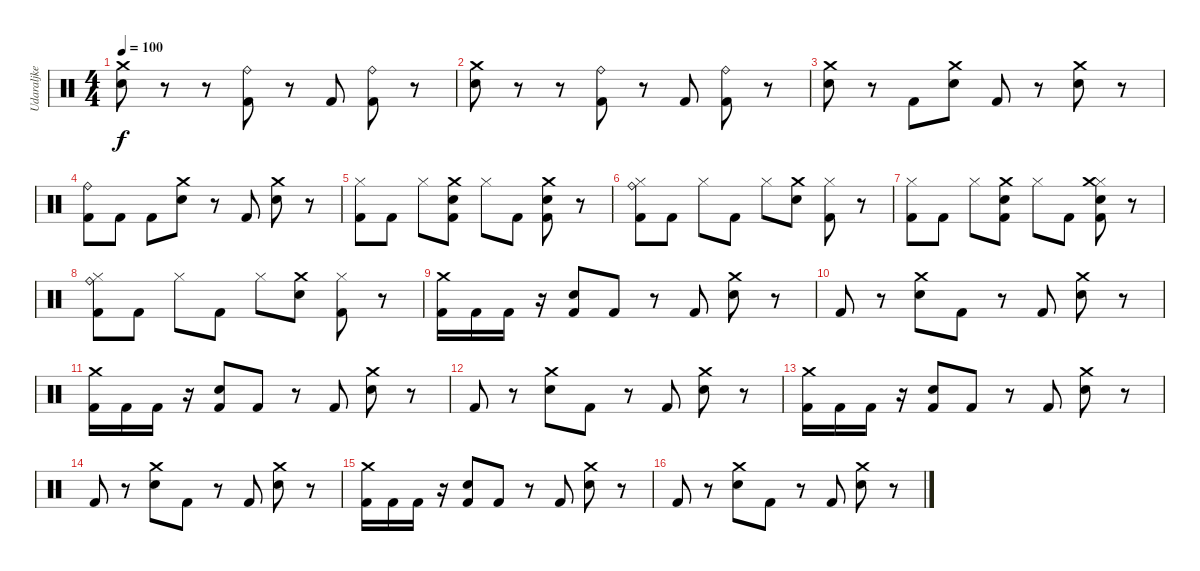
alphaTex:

\track ("Udaraljke" "Udaraljke") {instrument percussion}
\staff {score}
\articulation defaults
\ts (4 4)
\tempo 100
\clef neutral
\ks c
("Crash medium (hit)" "Snare (hit) 2").8{dy f} r.8 r.8 ("Ride (bell)" "Kick (hit) 2").8 r.8 "Kick (hit) 2".8 ("Ride (bell)" "Kick (hit) 2").8 r.8 |
("Crash medium (hit)" "Snare (hit) 2").8 r.8 r.8 ("Ride (bell)" "Kick (hit) 2").8 r.8 "Kick (hit) 2".8 ("Ride (bell)" "Kick (hit) 2").8 r.8 |
("Snare (hit) 2" "Crash medium (hit)").8 r.8 "Kick (hit) 2".8 ("Crash medium (hit)" "Snare (hit) 2").8 "Kick (hit) 2".8 r.8 ("Snare (hit) 2" "Crash medium (hit)").8 r.8 |
("Ride (bell)" "Kick (hit) 2").8 "Kick (hit) 2".8 "Kick (hit) 2".8 ("Crash medium (hit)" "Snare (hit) 2").8 r.8 "Kick (hit) 2".8 ("Crash medium (hit)" "Snare (hit) 2").8 r.8 |
("Hi-Hat (closed)" "Kick (hit) 2").8 "Kick (hit) 2".8 "Hi-Hat (closed)".8 ("Crash medium (hit)" "Snare (hit) 2" "Kick (hit) 2").8 "Hi-Hat (closed)".8 "Kick (hit) 2".8 ("Crash medium (hit)" "Snare (hit) 2" "Kick (hit) 2").8 r.8 |
("Hi-Hat (closed)" "Ride (bell)" "Kick (hit) 2").8 "Kick (hit) 2".8 "Hi-Hat (closed)".8 "Kick (hit) 2".8 "Hi-Hat (closed)".8 ("Crash medium (hit)" "Snare (hit) 2").8 ("Hi-Hat (closed)" "Kick (hit) 2").8 r.8 |
("Hi-Hat (closed)" "Kick (hit) 2").8 "Kick (hit) 2".8 "Hi-Hat (closed)".8 ("Crash medium (hit)" "Snare (hit) 2" "Kick (hit) 2").8 "Hi-Hat (closed)".8 "Kick (hit) 2".8 ("Hi-Hat (closed)" "Crash medium (hit)" "Snare (hit) 2" "Kick (hit) 2").8 r.8 |
("Hi-Hat (closed)" "Ride (bell)" "Kick (hit) 2").8 "Kick (hit) 2".8 "Hi-Hat (closed)".8 "Kick (hit) 2".8 "Hi-Hat (closed)".8 ("Crash medium (hit)" "Snare (hit) 2").8 ("Hi-Hat (closed)" "Kick (hit) 2").8 r.8 |
("Crash medium (hit)" "Kick (hit) 2").16 "Kick (hit) 2".16 "Kick (hit) 2".16 r.16 ("Snare (hit) 2" "Kick (hit) 2").8 "Kick (hit) 2".8 r.8 "Kick (hit) 2".8 ("Crash medium (hit)" "Snare (hit) 2").8 r.8 |
"Kick (hit) 2".8 r.8 ("Crash medium (hit)" "Snare (hit) 2").8 "Kick (hit) 2".8 r.8 "Kick (hit) 2".8 ("Crash medium (hit)" "Snare (hit) 2").8 r.8 |
("Crash medium (hit)" "Kick (hit) 2").16 "Kick (hit) 2".16 "Kick (hit) 2".16 r.16 ("Snare (hit) 2" "Kick (hit) 2").8 "Kick (hit) 2".8 r.8 "Kick (hit) 2".8 ("Crash medium (hit)" "Snare (hit) 2").8 r.8 |
"Kick (hit) 2".8 r.8 ("Crash medium (hit)" "Snare (hit) 2").8 "Kick (hit) 2".8 r.8 "Kick (hit) 2".8 ("Crash medium (hit)" "Snare (hit) 2").8 r.8 |
("Crash medium (hit)" "Kick (hit) 2").16 "Kick (hit) 2".16 "Kick (hit) 2".16 r.16 ("Snare (hit) 2" "Kick (hit) 2").8 "Kick (hit) 2".8 r.8 "Kick (hit) 2".8 ("Crash medium (hit)" "Snare (hit) 2").8 r.8 |
"Kick (hit) 2".8 r.8 ("Crash medium (hit)" "Snare (hit) 2").8 "Kick (hit) 2".8 r.8 "Kick (hit) 2".8 ("Crash medium (hit)" "Snare (hit) 2").8 r.8 |
("Crash medium (hit)" "Kick (hit) 2").16 "Kick (hit) 2".16 "Kick (hit) 2".16 r.16 ("Snare (hit) 2" "Kick (hit) 2").8 "Kick (hit) 2".8 r.8 "Kick (hit) 2".8 ("Crash medium (hit)" "Snare (hit) 2").8 r.8 |
"Kick (hit) 2".8 r.8 ("Crash medium (hit)" "Snare (hit) 2").8 "Kick (hit) 2".8 r.8 "Kick (hit) 2".8 ("Crash medium (hit)" "Snare (hit) 2").8 r.8
